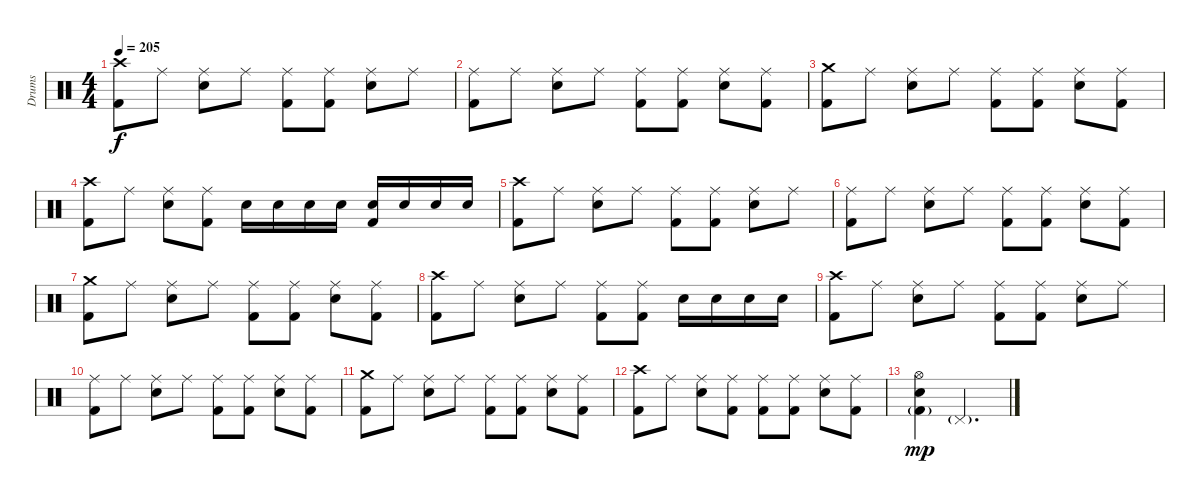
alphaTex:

\track ("Drums" "Drums") {instrument percussion}
\staff {score}
\articulation defaults
\ts (4 4)
\tempo 205
\clef neutral
\ks c
("Crash high (hit)" "Kick (hit) 2").8{dy f} "Ride (middle)".8 ("Ride (middle)" "Electric Snare (hit)").8 "Ride (middle)".8 ("Ride (middle)" "Kick (hit) 2").8 ("Ride (middle)" "Kick (hit) 2").8 ("Ride (middle)" "Electric Snare (hit)").8 "Ride (middle)".8 |
("Ride (middle)" "Kick (hit) 2").8 "Ride (middle)".8 ("Ride (middle)" "Electric Snare (hit)").8 "Ride (middle)".8 ("Ride (middle)" "Kick (hit) 2").8 ("Ride (middle)" "Kick (hit) 2").8 ("Ride (middle)" "Electric Snare (hit)").8 ("Ride (middle)" "Kick (hit) 2").8 |
("Crash medium (hit)" "Kick (hit) 2").8 "Ride (middle)".8 ("Ride (middle)" "Electric Snare (hit)").8 "Ride (middle)".8 ("Ride (middle)" "Kick (hit) 2").8 ("Ride (middle)" "Kick (hit) 2").8 ("Ride (middle)" "Electric Snare (hit)").8 ("Ride (middle)" "Kick (hit) 2").8 |
("Crash high (hit)" "Kick (hit) 2").8 "Ride (middle)".8 ("Ride (middle)" "Electric Snare (hit)").8 ("Ride (middle)" "Kick (hit) 2").8 "Electric Snare (hit)".16 "Electric Snare (hit)".16 "Electric Snare (hit)".16 "Electric Snare (hit)".16 ("Electric Snare (hit)" "Kick (hit) 2").16 "Electric Snare (hit)".16 "Electric Snare (hit)".16 "Electric Snare (hit)".16 |
("Crash high (hit)" "Kick (hit) 2").8 "Ride (middle)".8 ("Ride (middle)" "Electric Snare (hit)").8 "Ride (middle)".8 ("Ride (middle)" "Kick (hit) 2").8 ("Ride (middle)" "Kick (hit) 2").8 ("Ride (middle)" "Electric Snare (hit)").8 "Ride (middle)".8 |
("Ride (middle)" "Kick (hit) 2").8 "Ride (middle)".8 ("Ride (middle)" "Electric Snare (hit)").8 "Ride (middle)".8 ("Ride (middle)" "Kick (hit) 2").8 ("Ride (middle)" "Kick (hit) 2").8 ("Ride (middle)" "Electric Snare (hit)").8 ("Ride (middle)" "Kick (hit) 2").8 |
("Crash medium (hit)" "Kick (hit) 2").8 "Ride (middle)".8 ("Ride (middle)" "Electric Snare (hit)").8 "Ride (middle)".8 ("Ride (middle)" "Kick (hit) 2").8 ("Ride (middle)" "Kick (hit) 2").8 ("Ride (middle)" "Electric Snare (hit)").8 ("Ride (middle)" "Kick (hit) 2").8 |
("Crash high (hit)" "Kick (hit) 2").8 "Ride (middle)".8 ("Ride (middle)" "Electric Snare (hit)").8 "Ride (middle)".8 ("Ride (middle)" "Kick (hit) 2").8 ("Ride (middle)" "Kick (hit) 2").8 "Electric Snare (hit)".16 "Electric Snare (hit)".16 "Electric Snare (hit)".16 "Electric Snare (hit)".16 |
("Crash high (hit)" "Kick (hit) 2").8 "Ride (middle)".8 ("Ride (middle)" "Electric Snare (hit)").8 "Ride (middle)".8 ("Ride (middle)" "Kick (hit) 2").8 ("Ride (middle)" "Kick (hit) 2").8 ("Ride (middle)" "Electric Snare (hit)").8 "Ride (middle)".8 |
("Ride (middle)" "Kick (hit) 2").8 "Ride (middle)".8 ("Ride (middle)" "Electric Snare (hit)").8 "Ride (middle)".8 ("Ride (middle)" "Kick (hit) 2").8 ("Ride (middle)" "Kick (hit) 2").8 ("Ride (middle)" "Electric Snare (hit)").8 ("Ride (middle)" "Kick (hit) 2").8 |
("Crash medium (hit)" "Kick (hit) 2").8 "Ride (middle)".8 ("Ride (middle)" "Electric Snare (hit)").8 "Ride (middle)".8 ("Ride (middle)" "Kick (hit) 2").8 ("Ride (middle)" "Kick (hit) 2").8 ("Ride (middle)" "Electric Snare (hit)").8 ("Ride (middle)" "Kick (hit) 2").8 |
("Crash high (hit)" "Kick (hit) 2").8 "Ride (middle)".8 ("Ride (middle)" "Electric Snare (hit)").8 ("Ride (middle)" "Kick (hit) 2").8 ("Ride (middle)" "Kick (hit) 2").8 ("Ride (middle)" "Kick (hit) 2").8 ("Ride (middle)" "Electric Snare (hit)").8 ("Ride (middle)" "Kick (hit) 2").8 |
("Hi-Hat (open)" "Electric Snare (hit)" "Kick (hit) 2"{g}).4{dy mp} "Pedal Hi-Hat (hit)"{g}.2{d}
